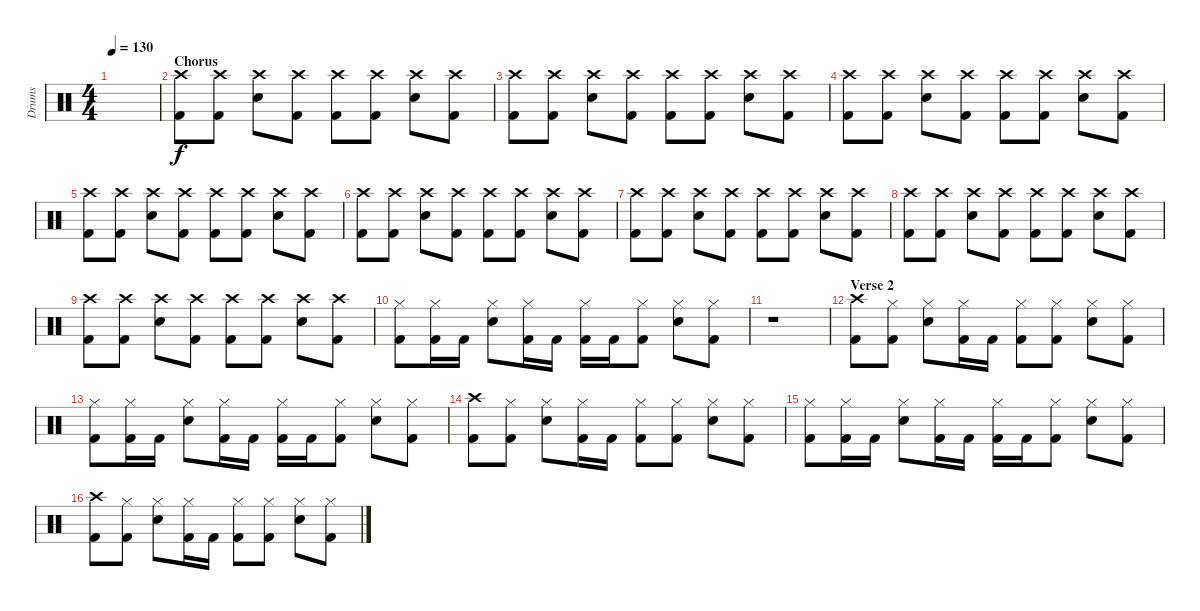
\track ("Drums" "Drums") {instrument percussion}
\staff {score}
\articulation defaults
\ts (4 4)
\tempo 130
\clef neutral
\ks c
|
\section ("" "Chorus")
("Crash high (hit)" "Kick (hit) 2").8 ("Crash high (hit)" "Kick (hit) 2").8 ("Crash high (hit)" "Electric Snare (hit)").8 ("Crash high (hit)" "Kick (hit) 2").8 ("Crash high (hit)" "Kick (hit) 2").8 ("Crash high (hit)" "Kick (hit) 2").8 ("Crash high (hit)" "Electric Snare (hit)").8 ("Crash high (hit)" "Kick (hit) 2").8 |
("Crash high (hit)" "Kick (hit) 2").8 ("Crash high (hit)" "Kick (hit) 2").8 ("Crash high (hit)" "Electric Snare (hit)").8 ("Crash high (hit)" "Kick (hit) 2").8 ("Crash high (hit)" "Kick (hit) 2").8 ("Crash high (hit)" "Kick (hit) 2").8 ("Crash high (hit)" "Electric Snare (hit)").8 ("Crash high (hit)" "Kick (hit) 2").8 |
("Crash high (hit)" "Kick (hit) 2").8 ("Crash high (hit)" "Kick (hit) 2").8 ("Crash high (hit)" "Electric Snare (hit)").8 ("Crash high (hit)" "Kick (hit) 2").8 ("Crash high (hit)" "Kick (hit) 2").8 ("Crash high (hit)" "Kick (hit) 2").8 ("Crash high (hit)" "Electric Snare (hit)").8 ("Crash high (hit)" "Kick (hit) 2").8 |
("Crash high (hit)" "Kick (hit) 2").8 ("Crash high (hit)" "Kick (hit) 2").8 ("Crash high (hit)" "Electric Snare (hit)").8 ("Crash high (hit)" "Kick (hit) 2").8 ("Crash high (hit)" "Kick (hit) 2").8 ("Crash high (hit)" "Kick (hit) 2").8 ("Crash high (hit)" "Electric Snare (hit)").8 ("Crash high (hit)" "Kick (hit) 2").8 |
("Crash high (hit)" "Kick (hit) 2").8 ("Crash high (hit)" "Kick (hit) 2").8 ("Crash high (hit)" "Electric Snare (hit)").8 ("Crash high (hit)" "Kick (hit) 2").8 ("Crash high (hit)" "Kick (hit) 2").8 ("Crash high (hit)" "Kick (hit) 2").8 ("Crash high (hit)" "Electric Snare (hit)").8 ("Crash high (hit)" "Kick (hit) 2").8 |
("Crash high (hit)" "Kick (hit) 2").8 ("Crash high (hit)" "Kick (hit) 2").8 ("Crash high (hit)" "Electric Snare (hit)").8 ("Crash high (hit)" "Kick (hit) 2").8 ("Crash high (hit)" "Kick (hit) 2").8 ("Crash high (hit)" "Kick (hit) 2").8 ("Crash high (hit)" "Electric Snare (hit)").8 ("Crash high (hit)" "Kick (hit) 2").8 |
("Crash high (hit)" "Kick (hit) 2").8 ("Crash high (hit)" "Kick (hit) 2").8 ("Crash high (hit)" "Electric Snare (hit)").8 ("Crash high (hit)" "Kick (hit) 2").8 ("Crash high (hit)" "Kick (hit) 2").8 ("Crash high (hit)" "Kick (hit) 2").8 ("Crash high (hit)" "Electric Snare (hit)").8 ("Crash high (hit)" "Kick (hit) 2").8 |
("Crash high (hit)" "Kick (hit) 2").8 ("Crash high (hit)" "Kick (hit) 2").8 ("Crash high (hit)" "Electric Snare (hit)").8 ("Crash high (hit)" "Kick (hit) 2").8 ("Crash high (hit)" "Kick (hit) 2").8 ("Crash high (hit)" "Kick (hit) 2").8 ("Crash high (hit)" "Electric Snare (hit)").8 ("Crash high (hit)" "Kick (hit) 2").8 |
\section ("" "")
("Hi-Hat (closed)" "Kick (hit) 2").8 ("Hi-Hat (closed)" "Kick (hit) 2").16 "Kick (hit) 2".16 ("Hi-Hat (closed)" "Electric Snare (hit)").8 ("Hi-Hat (closed)" "Kick (hit) 2").16 "Kick (hit) 2".16 ("Hi-Hat (closed)" "Kick (hit) 2").16 "Kick (hit) 2".16 ("Hi-Hat (closed)" "Kick (hit) 2").8 ("Hi-Hat (closed)" "Electric Snare (hit)").8 ("Hi-Hat (closed)" "Kick (hit) 2").8 |
r.1 |
\section ("" "Verse 2")
("Crash high (hit)" "Kick (hit) 2").8 ("Hi-Hat (closed)" "Kick (hit) 2").8 ("Hi-Hat (closed)" "Electric Snare (hit)").8 ("Hi-Hat (closed)" "Kick (hit) 2").16 "Kick (hit) 2".16 ("Hi-Hat (closed)" "Kick (hit) 2").8 ("Hi-Hat (closed)" "Kick (hit) 2").8 ("Hi-Hat (closed)" "Electric Snare (hit)").8 ("Hi-Hat (closed)" "Kick (hit) 2").8 |
("Hi-Hat (closed)" "Kick (hit) 2").8 ("Hi-Hat (closed)" "Kick (hit) 2").16 "Kick (hit) 2".16 ("Hi-Hat (closed)" "Electric Snare (hit)").8 ("Hi-Hat (closed)" "Kick (hit) 2").16 "Kick (hit) 2".16 ("Hi-Hat (closed)" "Kick (hit) 2").16 "Kick (hit) 2".16 ("Hi-Hat (closed)" "Kick (hit) 2").8 ("Hi-Hat (closed)" "Electric Snare (hit)").8 ("Hi-Hat (closed)" "Kick (hit) 2").8 |
("Crash high (hit)" "Kick (hit) 2").8 ("Hi-Hat (closed)" "Kick (hit) 2").8 ("Hi-Hat (closed)" "Electric Snare (hit)").8 ("Hi-Hat (closed)" "Kick (hit) 2").16 "Kick (hit) 2".16 ("Hi-Hat (closed)" "Kick (hit) 2").8 ("Hi-Hat (closed)" "Kick (hit) 2").8 ("Hi-Hat (closed)" "Electric Snare (hit)").8 ("Hi-Hat (closed)" "Kick (hit) 2").8 |
("Hi-Hat (closed)" "Kick (hit) 2").8 ("Hi-Hat (closed)" "Kick (hit) 2").16 "Kick (hit) 2".16 ("Hi-Hat (closed)" "Electric Snare (hit)").8 ("Hi-Hat (closed)" "Kick (hit) 2").16 "Kick (hit) 2".16 ("Hi-Hat (closed)" "Kick (hit) 2").16 "Kick (hit) 2".16 ("Hi-Hat (closed)" "Kick (hit) 2").8 ("Hi-Hat (closed)" "Electric Snare (hit)").8 ("Hi-Hat (closed)" "Kick (hit) 2").8 |
("Crash high (hit)" "Kick (hit) 2").8 ("Hi-Hat (closed)" "Kick (hit) 2").8 ("Hi-Hat (closed)" "Electric Snare (hit)").8 ("Hi-Hat (closed)" "Kick (hit) 2").16 "Kick (hit) 2".16 ("Hi-Hat (closed)" "Kick (hit) 2").8 ("Hi-Hat (closed)" "Kick (hit) 2").8 ("Hi-Hat (closed)" "Electric Snare (hit)").8 ("Hi-Hat (closed)" "Kick (hit) 2").8
